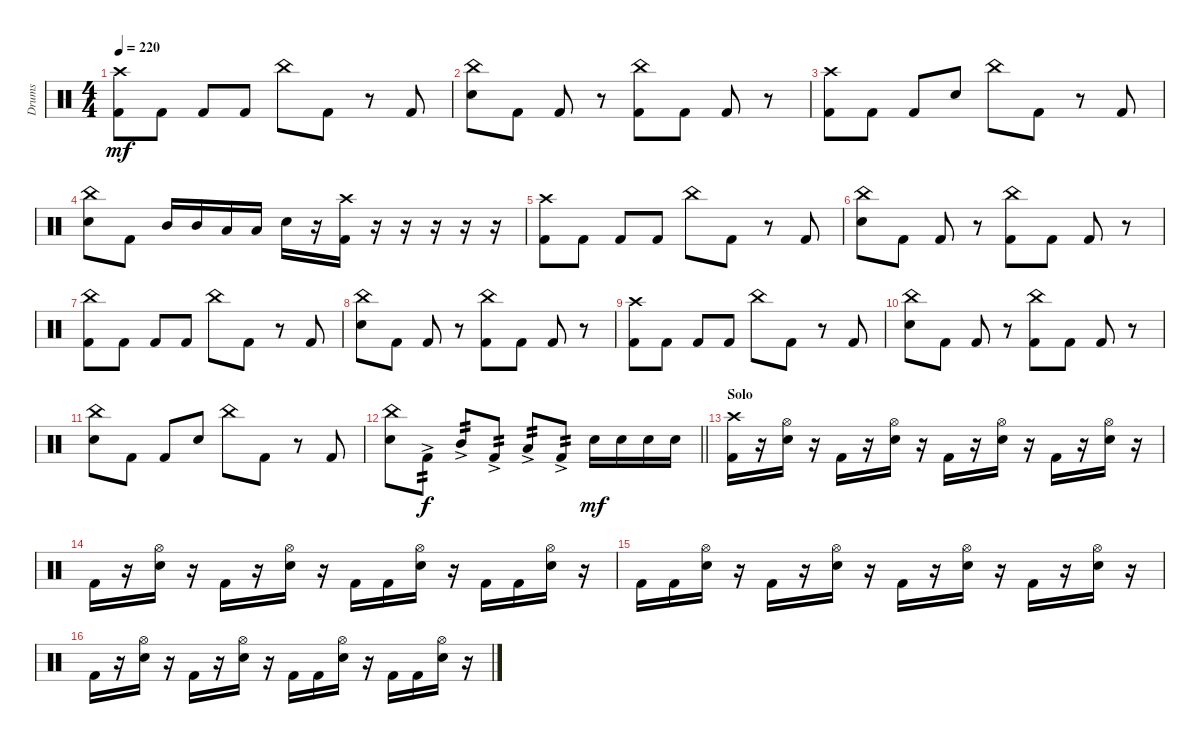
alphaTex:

\track ("Drums" "Drums") {instrument percussion}
\staff {score}
\articulation defaults
\ts (4 4)
\tempo 220
\clef neutral
\ks c
("Crash high (hit)" "Kick (hit) 2").8{dy mf} "Kick (hit) 2".8 "Kick (hit) 2".8 "Kick (hit) 2".8 "China (hit)".8 "Kick (hit) 2".8 r.8 "Kick (hit) 2".8 |
("Electric Snare (hit)" "China (hit)").8 "Kick (hit) 2".8 "Kick (hit) 2".8 r.8 ("Kick (hit) 2" "China (hit)").8 "Kick (hit) 2".8 "Kick (hit) 2".8 r.8 |
("Crash high (hit)" "Kick (hit) 2").8 "Kick (hit) 2".8 "Kick (hit) 2".8 "Electric Snare (hit)".8 "China (hit)".8 "Kick (hit) 2".8 r.8 "Kick (hit) 2".8 |
("Electric Snare (hit)" "China (hit)").8 "Kick (hit) 2".8 "Mid Tom (hit)".16 "Mid Tom (hit)".16 "Low Tom (hit)".16 "Low Tom (hit)".16 "Electric Snare (hit)".16 r.16 ("Kick (hit) 2" "Crash high (hit)").16 r.16 r.16 r.16 r.16 r.16 |
("Crash high (hit)" "Kick (hit) 2").8 "Kick (hit) 2".8 "Kick (hit) 2".8 "Kick (hit) 2".8 "China (hit)".8 "Kick (hit) 2".8 r.8 "Kick (hit) 2".8 |
("Electric Snare (hit)" "China (hit)").8 "Kick (hit) 2".8 "Kick (hit) 2".8 r.8 ("Kick (hit) 2" "China (hit)").8 "Kick (hit) 2".8 "Kick (hit) 2".8 r.8 |
("China (hit)" "Kick (hit) 2").8 "Kick (hit) 2".8 "Kick (hit) 2".8 "Kick (hit) 2".8 "China (hit)".8 "Kick (hit) 2".8 r.8 "Kick (hit) 2".8 |
("Electric Snare (hit)" "China (hit)").8 "Kick (hit) 2".8 "Kick (hit) 2".8 r.8 ("Kick (hit) 2" "China (hit)").8 "Kick (hit) 2".8 "Kick (hit) 2".8 r.8 |
("Crash high (hit)" "Kick (hit) 2").8 "Kick (hit) 2".8 "Kick (hit) 2".8 "Kick (hit) 2".8 "China (hit)".8 "Kick (hit) 2".8 r.8 "Kick (hit) 2".8 |
("Electric Snare (hit)" "China (hit)").8 "Kick (hit) 2".8 "Kick (hit) 2".8 r.8 ("Kick (hit) 2" "China (hit)").8 "Kick (hit) 2".8 "Kick (hit) 2".8 r.8 |
("China (hit)" "Electric Snare (hit)").8 "Kick (hit) 2".8 "Kick (hit) 2".8 "Electric Snare (hit)".8 "China (hit)".8 "Kick (hit) 2".8 r.8 "Kick (hit) 2".8 |
\barLineRight lightlight
("Electric Snare (hit)" "China (hit)").8 "Kick (hit) 2"{ac}.8{tp 2 dy f} "Mid Tom (hit)"{ac}.8{tp 2} "Kick (hit) 2"{ac}.8{tp 2} "Low Tom (hit)"{ac}.8{tp 2} "Kick (hit) 2"{ac}.8{tp 2} "Electric Snare (hit)".16{dy mf} "Electric Snare (hit)".16 "Electric Snare (hit)".16 "Electric Snare (hit)".16 |
\section ("" "Solo")
("Kick (hit) 2" "Crash high (hit)").16 r.16 ("Electric Snare (hit)" "Hi-Hat (open)").16 r.16 "Kick (hit) 2".16 r.16 ("Electric Snare (hit)" "Hi-Hat (open)").16 r.16 "Kick (hit) 2".16 r.16 ("Electric Snare (hit)" "Hi-Hat (open)").16 r.16 "Kick (hit) 2".16 r.16 ("Electric Snare (hit)" "Hi-Hat (open)").16 r.16 |
"Kick (hit) 2".16 r.16 ("Electric Snare (hit)" "Hi-Hat (open)").16 r.16 "Kick (hit) 2".16 r.16 ("Electric Snare (hit)" "Hi-Hat (open)").16 r.16 "Kick (hit) 2".16 "Kick (hit) 2".16 ("Electric Snare (hit)" "Hi-Hat (open)").16 r.16 "Kick (hit) 2".16 "Kick (hit) 2".16 ("Electric Snare (hit)" "Hi-Hat (open)").16 r.16 |
"Kick (hit) 2".16 "Kick (hit) 2".16 ("Electric Snare (hit)" "Hi-Hat (open)").16 r.16 "Kick (hit) 2".16 r.16 ("Electric Snare (hit)" "Hi-Hat (open)").16 r.16 "Kick (hit) 2".16 r.16 ("Electric Snare (hit)" "Hi-Hat (open)").16 r.16 "Kick (hit) 2".16 r.16 ("Electric Snare (hit)" "Hi-Hat (open)").16 r.16 |
"Kick (hit) 2".16 r.16 ("Electric Snare (hit)" "Hi-Hat (open)").16 r.16 "Kick (hit) 2".16 r.16 ("Electric Snare (hit)" "Hi-Hat (open)").16 r.16 "Kick (hit) 2".16 "Kick (hit) 2".16 ("Electric Snare (hit)" "Hi-Hat (open)").16 r.16 "Kick (hit) 2".16 "Kick (hit) 2".16 ("Electric Snare (hit)" "Hi-Hat (open)").16 r.16
